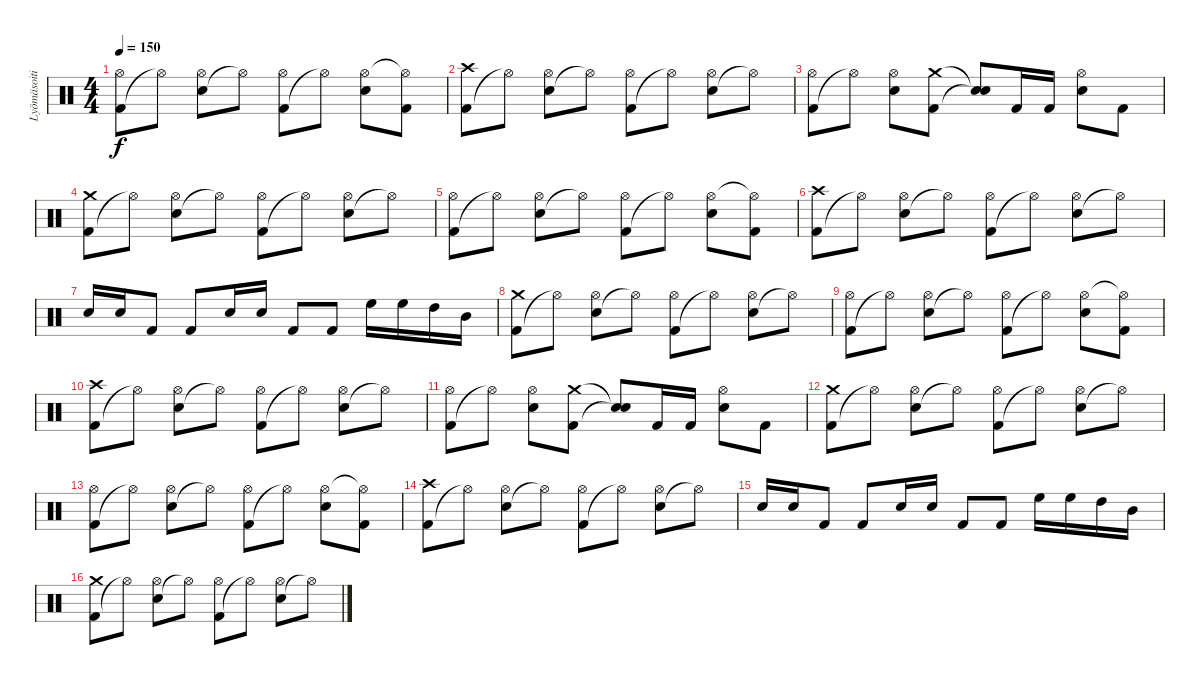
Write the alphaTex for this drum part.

\track ("Lyömäsoitin" "Lyömäsoiti") {instrument percussion}
\staff {score}
\articulation defaults
\ts (4 4)
\tempo 150
\clef neutral
\ks c
("Kick (hit) 2" "Hi-Hat (open)").8{dy f} "Hi-Hat (open)"{t}.8 ("Electric Snare (hit)" "Hi-Hat (open)").8 "Hi-Hat (open)"{t}.8 ("Kick (hit) 2" "Hi-Hat (open)").8 "Hi-Hat (open)"{t}.8 ("Electric Snare (hit)" "Hi-Hat (open)").8 ("Kick (hit) 2" "Hi-Hat (open)"{t}).8 |
("Kick (hit) 2" "Crash high (hit)").8 "Hi-Hat (open)"{t}.8 ("Electric Snare (hit)" "Hi-Hat (open)").8 "Hi-Hat (open)"{t}.8 ("Kick (hit) 2" "Hi-Hat (open)").8 "Hi-Hat (open)"{t}.8 ("Electric Snare (hit)" "Hi-Hat (open)").8 "Hi-Hat (open)"{t}.8 |
("Kick (hit) 2" "Hi-Hat (open)").8 "Hi-Hat (open)"{t}.8 ("Electric Snare (hit)" "Hi-Hat (open)").8 ("Kick (hit) 2" "Crash medium (hit)").8 ("Snare (hit)"{t} "Snare (hit)"{t}).8 "Kick (hit) 2".16 "Kick (hit) 2".16 ("Electric Snare (hit)" "Hi-Hat (open)").8 "Kick (hit) 2".8 |
("Kick (hit) 2" "Crash medium (hit)").8 "Hi-Hat (open)"{t}.8 ("Electric Snare (hit)" "Hi-Hat (open)").8 "Hi-Hat (open)"{t}.8 ("Kick (hit) 2" "Hi-Hat (open)").8 "Hi-Hat (open)"{t}.8 ("Electric Snare (hit)" "Hi-Hat (open)").8 "Hi-Hat (open)"{t}.8 |
("Kick (hit) 2" "Hi-Hat (open)").8 "Hi-Hat (open)"{t}.8 ("Electric Snare (hit)" "Hi-Hat (open)").8 "Hi-Hat (open)"{t}.8 ("Kick (hit) 2" "Hi-Hat (open)").8 "Hi-Hat (open)"{t}.8 ("Electric Snare (hit)" "Hi-Hat (open)").8 ("Kick (hit) 2" "Hi-Hat (open)"{t}).8 |
("Kick (hit) 2" "Crash high (hit)").8 "Hi-Hat (open)"{t}.8 ("Electric Snare (hit)" "Hi-Hat (open)").8 "Hi-Hat (open)"{t}.8 ("Kick (hit) 2" "Hi-Hat (open)").8 "Hi-Hat (open)"{t}.8 ("Electric Snare (hit)" "Hi-Hat (open)").8 "Hi-Hat (open)"{t}.8 |
"Electric Snare (hit)".16 "Electric Snare (hit)".16 "Kick (hit) 2".8 "Kick (hit) 2".8 "Electric Snare (hit)".16 "Electric Snare (hit)".16 "Kick (hit) 2".8 "Kick (hit) 2".8 "High Floor Tom (hit)".16 "High Floor Tom (hit)".16 "High Tom (hit)".16 "Mid Tom (hit)".16 |
("Kick (hit) 2" "Crash medium (hit)").8 "Hi-Hat (open)"{t}.8 ("Electric Snare (hit)" "Hi-Hat (open)").8 "Hi-Hat (open)"{t}.8 ("Kick (hit) 2" "Hi-Hat (open)").8 "Hi-Hat (open)"{t}.8 ("Electric Snare (hit)" "Hi-Hat (open)").8 "Hi-Hat (open)"{t}.8 |
("Kick (hit) 2" "Hi-Hat (open)").8 "Hi-Hat (open)"{t}.8 ("Electric Snare (hit)" "Hi-Hat (open)").8 "Hi-Hat (open)"{t}.8 ("Kick (hit) 2" "Hi-Hat (open)").8 "Hi-Hat (open)"{t}.8 ("Electric Snare (hit)" "Hi-Hat (open)").8 ("Kick (hit) 2" "Hi-Hat (open)"{t}).8 |
("Kick (hit) 2" "Crash high (hit)").8 "Hi-Hat (open)"{t}.8 ("Electric Snare (hit)" "Hi-Hat (open)").8 "Hi-Hat (open)"{t}.8 ("Kick (hit) 2" "Hi-Hat (open)").8 "Hi-Hat (open)"{t}.8 ("Electric Snare (hit)" "Hi-Hat (open)").8 "Hi-Hat (open)"{t}.8 |
("Kick (hit) 2" "Hi-Hat (open)").8 "Hi-Hat (open)"{t}.8 ("Electric Snare (hit)" "Hi-Hat (open)").8 ("Kick (hit) 2" "Crash medium (hit)").8 ("Snare (hit)"{t} "Snare (hit)"{t}).8 "Kick (hit) 2".16 "Kick (hit) 2".16 ("Electric Snare (hit)" "Hi-Hat (open)").8 "Kick (hit) 2".8 |
("Kick (hit) 2" "Crash medium (hit)").8 "Hi-Hat (open)"{t}.8 ("Electric Snare (hit)" "Hi-Hat (open)").8 "Hi-Hat (open)"{t}.8 ("Kick (hit) 2" "Hi-Hat (open)").8 "Hi-Hat (open)"{t}.8 ("Electric Snare (hit)" "Hi-Hat (open)").8 "Hi-Hat (open)"{t}.8 |
("Kick (hit) 2" "Hi-Hat (open)").8 "Hi-Hat (open)"{t}.8 ("Electric Snare (hit)" "Hi-Hat (open)").8 "Hi-Hat (open)"{t}.8 ("Kick (hit) 2" "Hi-Hat (open)").8 "Hi-Hat (open)"{t}.8 ("Electric Snare (hit)" "Hi-Hat (open)").8 ("Kick (hit) 2" "Hi-Hat (open)"{t}).8 |
("Kick (hit) 2" "Crash high (hit)").8 "Hi-Hat (open)"{t}.8 ("Electric Snare (hit)" "Hi-Hat (open)").8 "Hi-Hat (open)"{t}.8 ("Kick (hit) 2" "Hi-Hat (open)").8 "Hi-Hat (open)"{t}.8 ("Electric Snare (hit)" "Hi-Hat (open)").8 "Hi-Hat (open)"{t}.8 |
"Electric Snare (hit)".16 "Electric Snare (hit)".16 "Kick (hit) 2".8 "Kick (hit) 2".8 "Electric Snare (hit)".16 "Electric Snare (hit)".16 "Kick (hit) 2".8 "Kick (hit) 2".8 "High Floor Tom (hit)".16 "High Floor Tom (hit)".16 "High Tom (hit)".16 "Mid Tom (hit)".16 |
("Kick (hit) 2" "Crash medium (hit)").8 "Hi-Hat (open)"{t}.8 ("Electric Snare (hit)" "Hi-Hat (open)").8 "Hi-Hat (open)"{t}.8 ("Kick (hit) 2" "Hi-Hat (open)").8 "Hi-Hat (open)"{t}.8 ("Electric Snare (hit)" "Hi-Hat (open)").8 "Hi-Hat (open)"{t}.8
